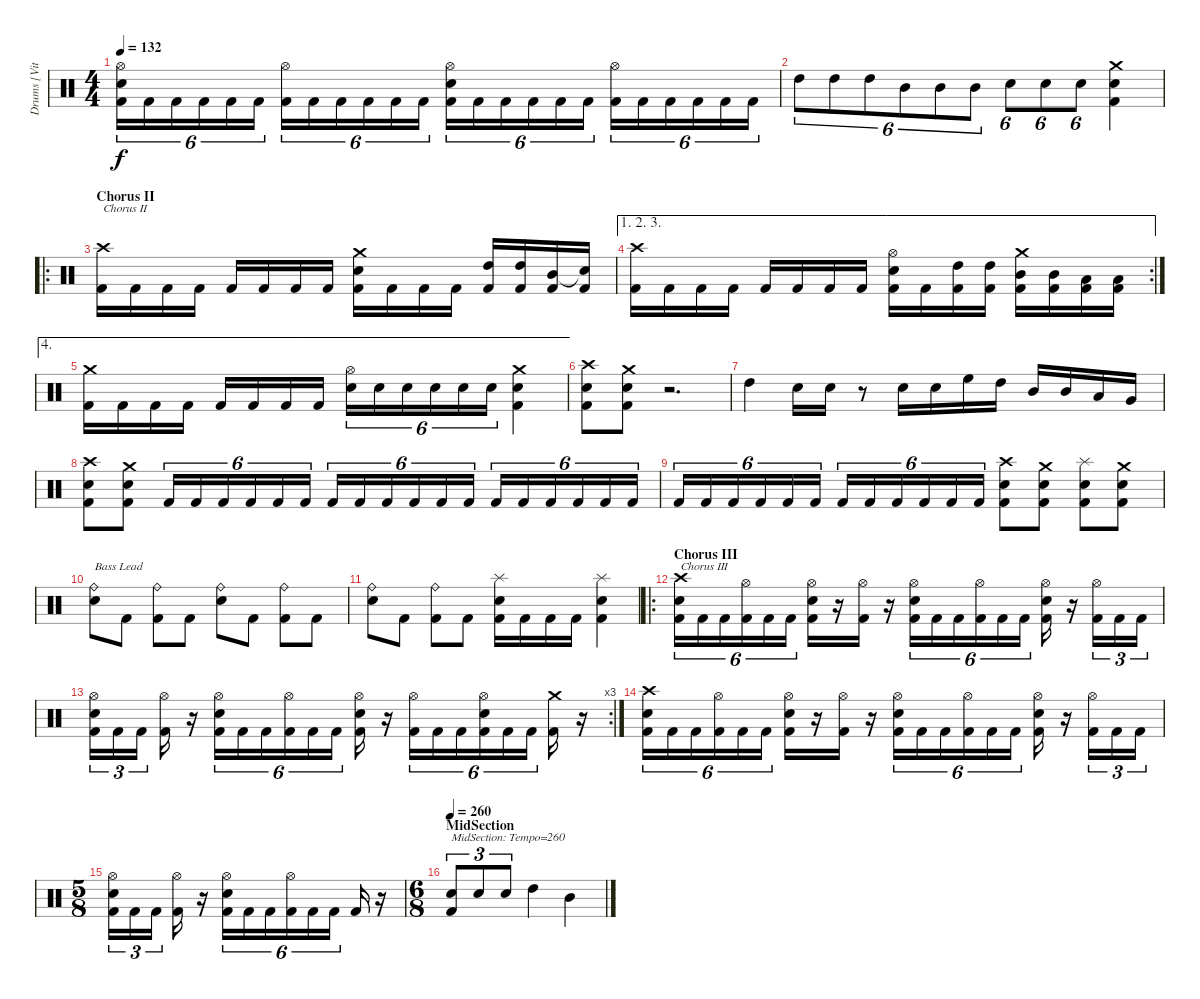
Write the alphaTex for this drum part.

\track ("Drums [Vitek]" "Drums [Vit") {instrument percussion}
\staff {score}
\articulation defaults
\ts (4 4)
\tempo 132
\clef neutral
\ks c
("Hi-Hat (open)" "Electric Snare (hit)" "Kick (hit) 2").16{tu (6 4) dy f} "Kick (hit) 2".16{tu (6 4)} "Kick (hit) 2".16{tu (6 4)} "Kick (hit) 2".16{tu (6 4)} "Kick (hit) 2".16{tu (6 4)} "Kick (hit) 2".16{tu (6 4)} ("Hi-Hat (open)" "Kick (hit) 2").16{tu (6 4)} "Kick (hit) 2".16{tu (6 4)} "Kick (hit) 2".16{tu (6 4)} "Kick (hit) 2".16{tu (6 4)} "Kick (hit) 2".16{tu (6 4)} "Kick (hit) 2".16{tu (6 4)} ("Hi-Hat (open)" "Electric Snare (hit)" "Kick (hit) 2").16{tu (6 4)} "Kick (hit) 2".16{tu (6 4)} "Kick (hit) 2".16{tu (6 4)} "Kick (hit) 2".16{tu (6 4)} "Kick (hit) 2".16{tu (6 4)} "Kick (hit) 2".16{tu (6 4)} ("Hi-Hat (open)" "Kick (hit) 2").16{tu (6 4)} "Kick (hit) 2".16{tu (6 4)} "Kick (hit) 2".16{tu (6 4)} "Kick (hit) 2".16{tu (6 4)} "Kick (hit) 2".16{tu (6 4)} "Kick (hit) 2".16{tu (6 4)} |
"High Tom (hit)".8{tu (6 4)} "High Tom (hit)".8{tu (6 4)} "High Tom (hit)".8{tu (6 4)} "Mid Tom (hit)".8{tu (6 4)} "Mid Tom (hit)".8{tu (6 4)} "Mid Tom (hit)".8{tu (6 4)} "Electric Snare (hit)".8{tu (6 4)} "Electric Snare (hit)".8{tu (6 4)} "Electric Snare (hit)".8{tu (6 4)} ("Crash medium (hit)" "Electric Snare (hit)" "Kick (hit) 2").4 |
\ro
\section ("" "Chorus II")
("Crash high (hit)" "Kick (hit) 2").16{txt "Chorus II"} "Kick (hit) 2".16 "Kick (hit) 2".16 "Kick (hit) 2".16 "Kick (hit) 2".16 "Kick (hit) 2".16 "Kick (hit) 2".16 "Kick (hit) 2".16 ("Crash medium (hit)" "Electric Snare (hit)" "Kick (hit) 2").16 "Kick (hit) 2".16 "Kick (hit) 2".16 "Kick (hit) 2".16 ("High Tom (hit)" "Kick (hit) 2").16 ("High Tom (hit)" "Kick (hit) 2").16 ("Mid Tom (hit)" "Kick (hit) 2").16 ("Snare (hit)"{t} "Kick (hit) 2").16 |
\ae (1 2 3)
\rc 2
("Crash high (hit)" "Kick (hit) 2").16 "Kick (hit) 2".16 "Kick (hit) 2".16 "Kick (hit) 2".16 "Kick (hit) 2".16 "Kick (hit) 2".16 "Kick (hit) 2".16 "Kick (hit) 2".16 ("Hi-Hat (open)" "Electric Snare (hit)" "Kick (hit) 2").16 "Kick (hit) 2".16 ("High Tom (hit)" "Kick (hit) 2").16 ("High Tom (hit)" "Kick (hit) 2").16 ("Crash medium (hit)" "Mid Tom (hit)" "Kick (hit) 2").16 ("Mid Tom (hit)" "Kick (hit) 2").16 ("Low Tom (hit)" "Kick (hit) 2").16 ("Low Tom (hit)" "Kick (hit) 2").16 |
\ae 4
("Crash medium (hit)" "Kick (hit) 2").16 "Kick (hit) 2".16 "Kick (hit) 2".16 "Kick (hit) 2".16 "Kick (hit) 2".16 "Kick (hit) 2".16 "Kick (hit) 2".16 "Kick (hit) 2".16 ("Hi-Hat (open)" "Electric Snare (hit)").16{tu (6 4)} "Electric Snare (hit)".16{tu (6 4)} "Electric Snare (hit)".16{tu (6 4)} "Electric Snare (hit)".16{tu (6 4)} "Electric Snare (hit)".16{tu (6 4)} "Electric Snare (hit)".16{tu (6 4)} ("Crash medium (hit)" "Electric Snare (hit)" "Kick (hit) 2").4 |
("Crash high (hit)" "Electric Snare (hit)" "Kick (hit) 2").8 ("Crash medium (hit)" "Electric Snare (hit)" "Kick (hit) 2").8 r.2{d} |
"High Tom (hit)".4 "Electric Snare (hit)".16 "Electric Snare (hit)".16 r.8 "Electric Snare (hit)".16 "Electric Snare (hit)".16 "High Floor Tom (hit)".16 "High Tom (hit)".16 "Mid Tom (hit)".16 "Mid Tom (hit)".16 "Low Tom (hit)".16 "Very Low Tom (hit)".16 |
("Crash high (hit)" "Electric Snare (hit)" "Kick (hit) 2").8 ("Crash medium (hit)" "Electric Snare (hit)" "Kick (hit) 2").8 "Kick (hit) 2".16{tu (6 4)} "Kick (hit) 2".16{tu (6 4)} "Kick (hit) 2".16{tu (6 4)} "Kick (hit) 2".16{tu (6 4)} "Kick (hit) 2".16{tu (6 4)} "Kick (hit) 2".16{tu (6 4)} "Kick (hit) 2".16{tu (6 4)} "Kick (hit) 2".16{tu (6 4)} "Kick (hit) 2".16{tu (6 4)} "Kick (hit) 2".16{tu (6 4)} "Kick (hit) 2".16{tu (6 4)} "Kick (hit) 2".16{tu (6 4)} "Kick (hit) 2".16{tu (6 4)} "Kick (hit) 2".16{tu (6 4)} "Kick (hit) 2".16{tu (6 4)} "Kick (hit) 2".16{tu (6 4)} "Kick (hit) 2".16{tu (6 4)} "Kick (hit) 2".16{tu (6 4)} |
"Kick (hit) 2".16{tu (6 4)} "Kick (hit) 2".16{tu (6 4)} "Kick (hit) 2".16{tu (6 4)} "Kick (hit) 2".16{tu (6 4)} "Kick (hit) 2".16{tu (6 4)} "Kick (hit) 2".16{tu (6 4)} "Kick (hit) 2".16{tu (6 4)} "Kick (hit) 2".16{tu (6 4)} "Kick (hit) 2".16{tu (6 4)} "Kick (hit) 2".16{tu (6 4)} "Kick (hit) 2".16{tu (6 4)} "Kick (hit) 2".16{tu (6 4)} ("Crash high (hit)" "Electric Snare (hit)" "Kick (hit) 2").8 ("Crash medium (hit)" "Electric Snare (hit)" "Kick (hit) 2").8 ("Splash (hit)" "Electric Snare (hit)" "Kick (hit) 2").8 ("Crash medium (hit)" "Electric Snare (hit)" "Kick (hit) 2").8 |
("Ride (bell)" "Electric Snare (hit)").8{txt "Bass Lead"} "Kick (hit) 2".8 ("Ride (bell)" "Kick (hit) 2").8 "Kick (hit) 2".8 ("Ride (bell)" "Electric Snare (hit)").8 "Kick (hit) 2".8 ("Ride (bell)" "Kick (hit) 2").8 "Kick (hit) 2".8 |
("Ride (bell)" "Electric Snare (hit)").8 "Kick (hit) 2".8 ("Ride (bell)" "Kick (hit) 2").8 "Kick (hit) 2".8 ("Splash (hit)" "Electric Snare (hit)" "Kick (hit) 2").16 "Kick (hit) 2".16 "Kick (hit) 2".16 "Kick (hit) 2".16 ("Splash (hit)" "Electric Snare (hit)" "Kick (hit) 2").4 |
\ro
\section ("" "Chorus III")
("Crash high (hit)" "Electric Snare (hit)" "Kick (hit) 2").16{tu (6 4) txt "Chorus III"} "Kick (hit) 2".16{tu (6 4)} "Kick (hit) 2".16{tu (6 4)} ("Hi-Hat (open)" "Kick (hit) 2").16{tu (6 4)} "Kick (hit) 2".16{tu (6 4)} "Kick (hit) 2".16{tu (6 4)} ("Hi-Hat (open)" "Electric Snare (hit)" "Kick (hit) 2").16 r.16 ("Hi-Hat (open)" "Kick (hit) 2").16 r.16 ("Hi-Hat (open)" "Electric Snare (hit)" "Kick (hit) 2").16{tu (6 4)} "Kick (hit) 2".16{tu (6 4)} "Kick (hit) 2".16{tu (6 4)} ("Hi-Hat (open)" "Kick (hit) 2").16{tu (6 4)} "Kick (hit) 2".16{tu (6 4)} "Kick (hit) 2".16{tu (6 4)} ("Hi-Hat (open)" "Electric Snare (hit)" "Kick (hit) 2").16 r.16 ("Hi-Hat (open)" "Kick (hit) 2").16{tu (3 2)} "Kick (hit) 2".16{tu (3 2)} "Kick (hit) 2".16{tu (3 2)} |
\rc 3
("Hi-Hat (open)" "Electric Snare (hit)" "Kick (hit) 2").16{tu (3 2)} "Kick (hit) 2".16{tu (3 2)} "Kick (hit) 2".16{tu (3 2)} ("Hi-Hat (open)" "Kick (hit) 2").16 r.16 ("Hi-Hat (open)" "Electric Snare (hit)" "Kick (hit) 2").16{tu (6 4)} "Kick (hit) 2".16{tu (6 4)} "Kick (hit) 2".16{tu (6 4)} ("Hi-Hat (open)" "Kick (hit) 2").16{tu (6 4)} "Kick (hit) 2".16{tu (6 4)} "Kick (hit) 2".16{tu (6 4)} ("Hi-Hat (open)" "Electric Snare (hit)" "Kick (hit) 2").16 r.16 ("Hi-Hat (open)" "Kick (hit) 2").16{tu (6 4)} "Kick (hit) 2".16{tu (6 4)} "Kick (hit) 2".16{tu (6 4)} ("Hi-Hat (open)" "Electric Snare (hit)" "Kick (hit) 2").16{tu (6 4)} "Kick (hit) 2".16{tu (6 4)} "Kick (hit) 2".16{tu (6 4)} ("Crash medium (hit)" "Kick (hit) 2").16 r.16 |
("Crash high (hit)" "Electric Snare (hit)" "Kick (hit) 2").16{tu (6 4)} "Kick (hit) 2".16{tu (6 4)} "Kick (hit) 2".16{tu (6 4)} ("Hi-Hat (open)" "Kick (hit) 2").16{tu (6 4)} "Kick (hit) 2".16{tu (6 4)} "Kick (hit) 2".16{tu (6 4)} ("Hi-Hat (open)" "Electric Snare (hit)" "Kick (hit) 2").16 r.16 ("Hi-Hat (open)" "Kick (hit) 2").16 r.16 ("Hi-Hat (open)" "Electric Snare (hit)" "Kick (hit) 2").16{tu (6 4)} "Kick (hit) 2".16{tu (6 4)} "Kick (hit) 2".16{tu (6 4)} ("Hi-Hat (open)" "Kick (hit) 2").16{tu (6 4)} "Kick (hit) 2".16{tu (6 4)} "Kick (hit) 2".16{tu (6 4)} ("Hi-Hat (open)" "Electric Snare (hit)" "Kick (hit) 2").16 r.16 ("Hi-Hat (open)" "Kick (hit) 2").16{tu (3 2)} "Kick (hit) 2".16{tu (3 2)} "Kick (hit) 2".16{tu (3 2)} |
\ts (5 8)
("Hi-Hat (open)" "Electric Snare (hit)" "Kick (hit) 2").16{tu (3 2)} "Kick (hit) 2".16{tu (3 2)} "Kick (hit) 2".16{tu (3 2)} ("Hi-Hat (open)" "Kick (hit) 2").16 r.16 ("Hi-Hat (open)" "Electric Snare (hit)" "Kick (hit) 2").16{tu (6 4)} "Kick (hit) 2".16{tu (6 4)} "Kick (hit) 2".16{tu (6 4)} ("Hi-Hat (open)" "Kick (hit) 2").16{tu (6 4)} "Kick (hit) 2".16{tu (6 4)} "Kick (hit) 2".16{tu (6 4)} "Kick (hit) 2".16 r.16 |
\ts (6 8)
\section ("" "MidSection")
\tempo 260
("Electric Snare (hit)" "Kick (hit) 2").8{tu (3 2) txt "MidSection: Tempo=260"} "Electric Snare (hit)".8{tu (3 2)} "Electric Snare (hit)".8{tu (3 2)} "High Tom (hit)".4 "Mid Tom (hit)".4
